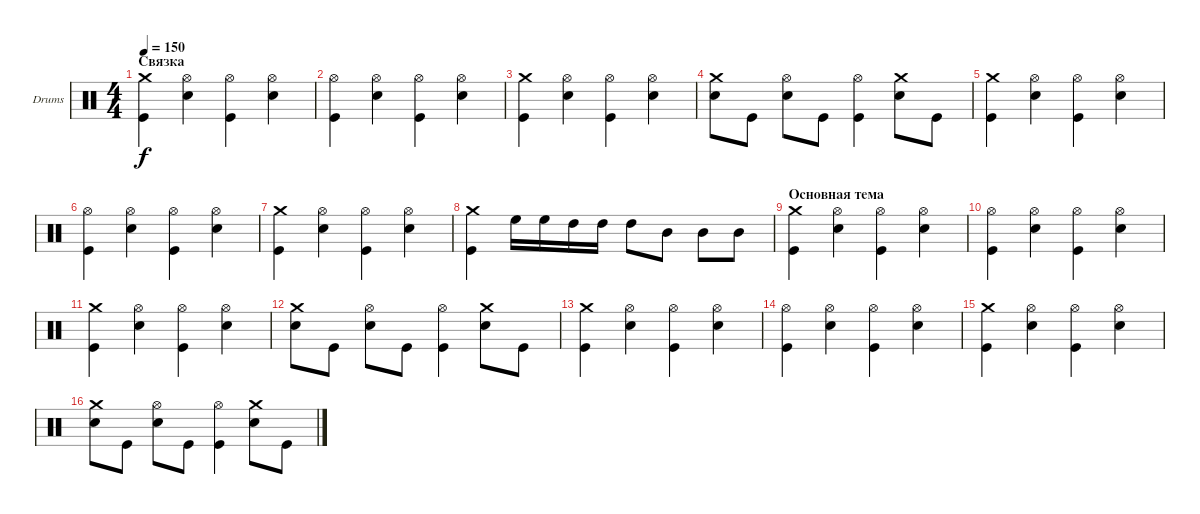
\defaultSystemsLayout 4
\bracketExtendMode groupsimilarinstruments
\firstSystemTrackNameOrientation horizontal
\otherSystemsTrackNameOrientation horizontal
\track ("Drumkit" "Drums") {instrument percussion}
\staff {score}
\articulation defaults
\ts (4 4)
\section ("" "Связка")
\tempo 150
\clef neutral
\ks c
("Kick (hit)" "Crash medium (hit)").4{dy f} ("Hi-Hat (open)" "Snare (hit) 2").4 ("Hi-Hat (open)" "Kick (hit)").4 ("Hi-Hat (open)" "Snare (hit) 2").4 |
("Hi-Hat (open)" "Kick (hit)").4 ("Snare (hit) 2" "Hi-Hat (open)").4 ("Kick (hit)" "Hi-Hat (open)").4 ("Snare (hit) 2" "Hi-Hat (open)").4 |
("Kick (hit)" "Crash medium (hit)").4 ("Hi-Hat (open)" "Snare (hit) 2").4 ("Hi-Hat (open)" "Kick (hit)").4 ("Hi-Hat (open)" "Snare (hit) 2").4 |
("Crash medium (hit)" "Snare (hit) 2").8 "Kick (hit)".8 ("Snare (hit) 2" "Hi-Hat (open)").8 "Kick (hit)".8 ("Kick (hit)" "Hi-Hat (open)").4 ("Snare (hit) 2" "Crash medium (hit)").8 "Kick (hit)".8 |
("Kick (hit)" "Crash medium (hit)").4 ("Hi-Hat (open)" "Snare (hit) 2").4 ("Hi-Hat (open)" "Kick (hit)").4 ("Hi-Hat (open)" "Snare (hit) 2").4 |
("Hi-Hat (open)" "Kick (hit)").4 ("Snare (hit) 2" "Hi-Hat (open)").4 ("Kick (hit)" "Hi-Hat (open)").4 ("Snare (hit) 2" "Hi-Hat (open)").4 |
("Kick (hit)" "Crash medium (hit)").4 ("Hi-Hat (open)" "Snare (hit) 2").4 ("Hi-Hat (open)" "Kick (hit)").4 ("Hi-Hat (open)" "Snare (hit) 2").4 |
("Crash medium (hit)" "Kick (hit)").4 "High Floor Tom (hit)".16 "High Floor Tom (hit)".16 "High Tom (hit)".16 "High Tom (hit)".16 "High Tom (hit)".8 "Mid Tom (hit)".8 "Mid Tom (hit)".8 "Mid Tom (hit)".8 |
\section ("" "Основная тема")
("Kick (hit)" "Crash medium (hit)").4 ("Hi-Hat (open)" "Snare (hit) 2").4 ("Hi-Hat (open)" "Kick (hit)").4 ("Hi-Hat (open)" "Snare (hit) 2").4 |
("Hi-Hat (open)" "Kick (hit)").4 ("Snare (hit) 2" "Hi-Hat (open)").4 ("Kick (hit)" "Hi-Hat (open)").4 ("Snare (hit) 2" "Hi-Hat (open)").4 |
("Kick (hit)" "Crash medium (hit)").4 ("Hi-Hat (open)" "Snare (hit) 2").4 ("Hi-Hat (open)" "Kick (hit)").4 ("Hi-Hat (open)" "Snare (hit) 2").4 |
("Crash medium (hit)" "Snare (hit) 2").8 "Kick (hit)".8 ("Snare (hit) 2" "Hi-Hat (open)").8 "Kick (hit)".8 ("Kick (hit)" "Hi-Hat (open)").4 ("Snare (hit) 2" "Crash medium (hit)").8 "Kick (hit)".8 |
("Kick (hit)" "Crash medium (hit)").4 ("Hi-Hat (open)" "Snare (hit) 2").4 ("Hi-Hat (open)" "Kick (hit)").4 ("Hi-Hat (open)" "Snare (hit) 2").4 |
("Hi-Hat (open)" "Kick (hit)").4 ("Snare (hit) 2" "Hi-Hat (open)").4 ("Kick (hit)" "Hi-Hat (open)").4 ("Snare (hit) 2" "Hi-Hat (open)").4 |
("Kick (hit)" "Crash medium (hit)").4 ("Hi-Hat (open)" "Snare (hit) 2").4 ("Hi-Hat (open)" "Kick (hit)").4 ("Hi-Hat (open)" "Snare (hit) 2").4 |
("Crash medium (hit)" "Snare (hit) 2").8 "Kick (hit)".8 ("Snare (hit) 2" "Hi-Hat (open)").8 "Kick (hit)".8 ("Kick (hit)" "Hi-Hat (open)").4 ("Snare (hit) 2" "Crash medium (hit)").8 "Kick (hit)".8
